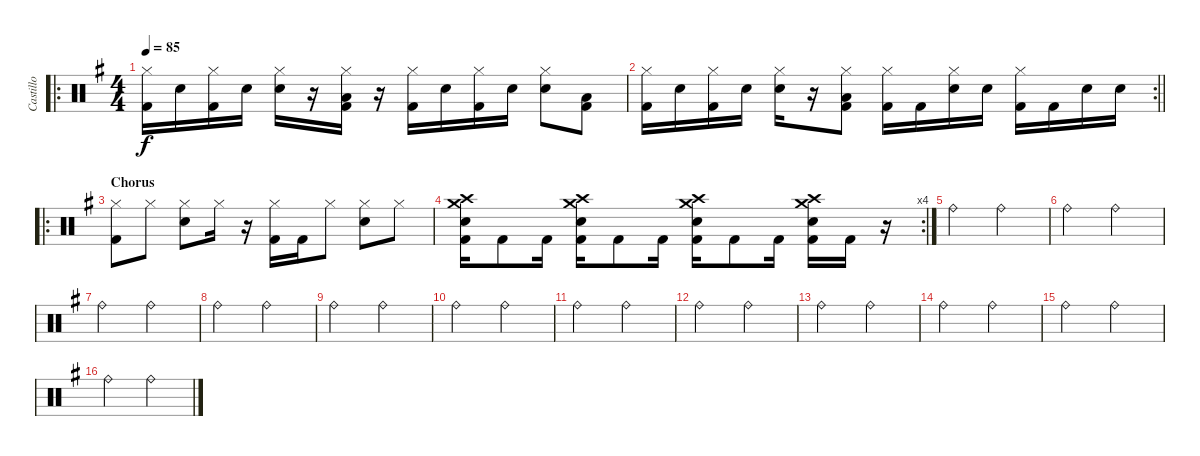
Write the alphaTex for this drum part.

\track ("Castillo" "Castillo") {instrument percussion}
\staff {score}
\articulation defaults
\ro
\ts (4 4)
\tempo 85
\clef neutral
\ks g
("Hi-Hat (closed)" "Kick (hit) 2").16{dy f} "Electric Snare (hit)".16 ("Hi-Hat (closed)" "Kick (hit) 2").16 "Electric Snare (hit)".16 ("Hi-Hat (closed)" "Electric Snare (hit)").16 r.16 ("Hi-Hat (closed)" "Kick (hit) 2" "Low Floor Tom (hit)").16 r.16 ("Hi-Hat (closed)" "Kick (hit) 2").16 "Electric Snare (hit)".16 ("Hi-Hat (closed)" "Kick (hit) 2").16 "Electric Snare (hit)".16 ("Hi-Hat (closed)" "Electric Snare (hit)").8 ("Kick (hit) 2" "Low Floor Tom (hit)").8 |
\rc 2
\barLineRight lightlight
("Hi-Hat (closed)" "Kick (hit) 2").16 "Electric Snare (hit)".16 ("Hi-Hat (closed)" "Kick (hit) 2").16 "Electric Snare (hit)".16 ("Hi-Hat (closed)" "Electric Snare (hit)").16 r.16 ("Hi-Hat (closed)" "Kick (hit) 2" "Low Floor Tom (hit)").8 ("Hi-Hat (closed)" "Kick (hit) 2").16 "Kick (hit) 2".16 ("Hi-Hat (closed)" "Electric Snare (hit)").16 "Electric Snare (hit)".16 ("Hi-Hat (closed)" "Kick (hit) 2").16 "Kick (hit) 2".16 "Electric Snare (hit)".16 "Electric Snare (hit)".16 |
\ro
\section ("" "Chorus")
("Hi-Hat (closed)" "Kick (hit) 2").8 "Hi-Hat (closed)".8 ("Hi-Hat (closed)" "Electric Snare (hit)").8 "Hi-Hat (closed)".16 r.16 ("Hi-Hat (closed)" "Kick (hit) 2").16 "Kick (hit) 2".16 "Hi-Hat (closed)".8 ("Hi-Hat (closed)" "Electric Snare (hit)").8 "Hi-Hat (closed)".8 |
\rc 4
("Kick (hit) 2" "Electric Snare (hit)" "Crash high (hit)" "Crash medium (hit)").16 "Kick (hit) 2".8 "Kick (hit) 2".16 ("Kick (hit) 2" "Electric Snare (hit)" "Crash high (hit)" "Crash medium (hit)").16 "Kick (hit) 2".8 "Kick (hit) 2".16 ("Kick (hit) 2" "Electric Snare (hit)" "Crash high (hit)" "Crash medium (hit)").16 "Kick (hit) 2".8 "Kick (hit) 2".16 ("Kick (hit) 2" "Electric Snare (hit)" "Crash high (hit)" "Crash medium (hit)").16 "Kick (hit) 2".16 r.16 |
"Ride (bell)".2 "Ride (bell)".2 |
"Ride (bell)".2 "Ride (bell)".2 |
"Ride (bell)".2 "Ride (bell)".2 |
"Ride (bell)".2 "Ride (bell)".2 |
"Ride (bell)".2 "Ride (bell)".2 |
"Ride (bell)".2 "Ride (bell)".2 |
"Ride (bell)".2 "Ride (bell)".2 |
"Ride (bell)".2 "Ride (bell)".2 |
"Ride (bell)".2 "Ride (bell)".2 |
"Ride (bell)".2 "Ride (bell)".2 |
"Ride (bell)".2 "Ride (bell)".2 |
"Ride (bell)".2 "Ride (bell)".2
